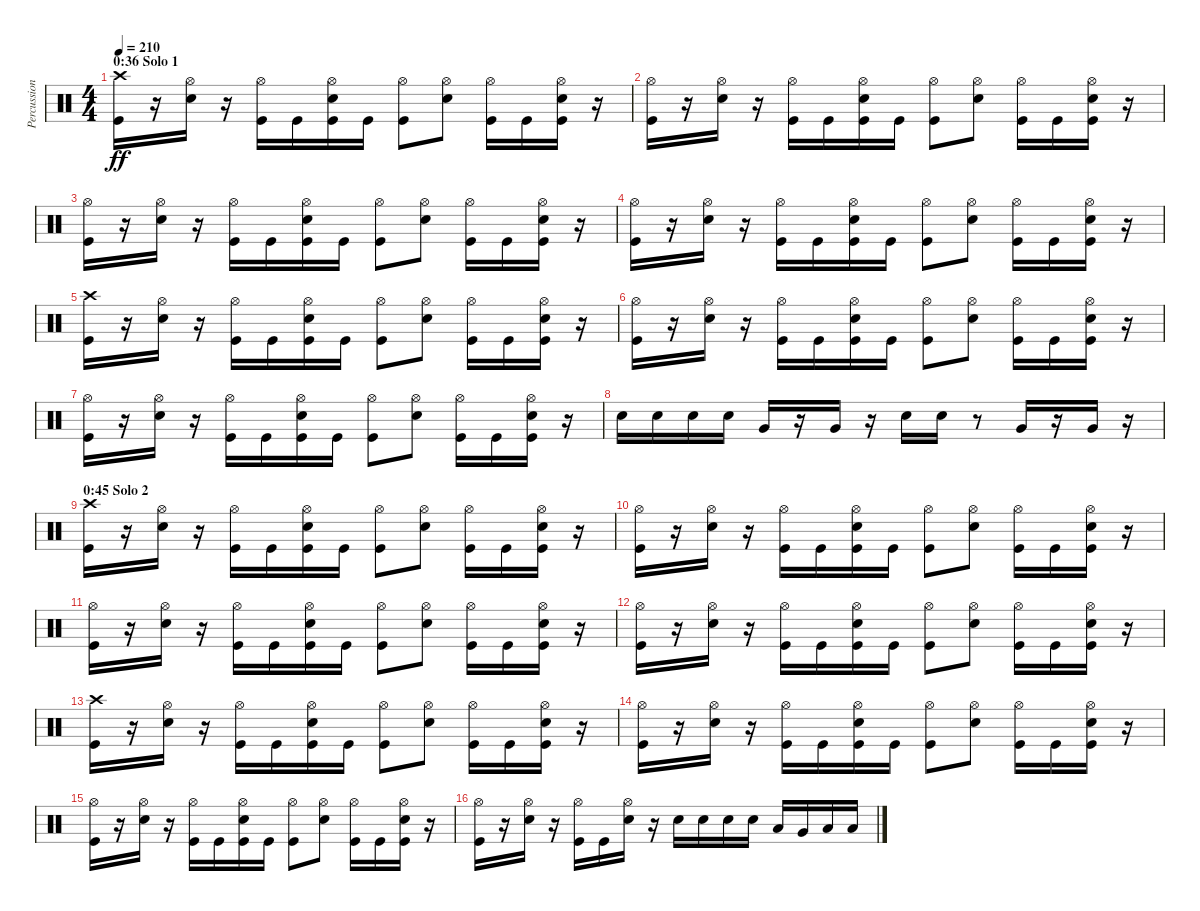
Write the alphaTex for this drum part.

\track ("Percussion" "Percussion") {instrument percussion}
\staff {score}
\articulation defaults
\ts (4 4)
\section ("" "0:36 Solo 1")
\tempo 210
\clef neutral
\ks c
("Crash high (hit)" "Kick (hit)").16{dy ff} r.16 ("Hi-Hat (open)" "Snare (hit) 2").16 r.16 ("Hi-Hat (open)" "Kick (hit)").16 "Kick (hit)".16 ("Hi-Hat (open)" "Snare (hit) 2" "Kick (hit)").16 "Kick (hit)".16 ("Hi-Hat (open)" "Kick (hit)").8 ("Hi-Hat (open)" "Snare (hit) 2").8 ("Hi-Hat (open)" "Kick (hit)").16 "Kick (hit)".16 ("Hi-Hat (open)" "Snare (hit) 2" "Kick (hit)").16 r.16 |
("Hi-Hat (open)" "Kick (hit)").16 r.16 ("Hi-Hat (open)" "Snare (hit) 2").16 r.16 ("Hi-Hat (open)" "Kick (hit)").16 "Kick (hit)".16 ("Hi-Hat (open)" "Snare (hit) 2" "Kick (hit)").16 "Kick (hit)".16 ("Hi-Hat (open)" "Kick (hit)").8 ("Hi-Hat (open)" "Snare (hit) 2").8 ("Hi-Hat (open)" "Kick (hit)").16 "Kick (hit)".16 ("Hi-Hat (open)" "Snare (hit) 2" "Kick (hit)").16 r.16 |
("Hi-Hat (open)" "Kick (hit)").16 r.16 ("Hi-Hat (open)" "Snare (hit) 2").16 r.16 ("Hi-Hat (open)" "Kick (hit)").16 "Kick (hit)".16 ("Hi-Hat (open)" "Snare (hit) 2" "Kick (hit)").16 "Kick (hit)".16 ("Hi-Hat (open)" "Kick (hit)").8 ("Hi-Hat (open)" "Snare (hit) 2").8 ("Hi-Hat (open)" "Kick (hit)").16 "Kick (hit)".16 ("Hi-Hat (open)" "Snare (hit) 2" "Kick (hit)").16 r.16 |
("Hi-Hat (open)" "Kick (hit)").16 r.16 ("Hi-Hat (open)" "Snare (hit) 2").16 r.16 ("Hi-Hat (open)" "Kick (hit)").16 "Kick (hit)".16 ("Hi-Hat (open)" "Snare (hit) 2" "Kick (hit)").16 "Kick (hit)".16 ("Hi-Hat (open)" "Kick (hit)").8 ("Hi-Hat (open)" "Snare (hit) 2").8 ("Hi-Hat (open)" "Kick (hit)").16 "Kick (hit)".16 ("Hi-Hat (open)" "Snare (hit) 2" "Kick (hit)").16 r.16 |
("Crash high (hit)" "Kick (hit)").16 r.16 ("Hi-Hat (open)" "Snare (hit) 2").16 r.16 ("Hi-Hat (open)" "Kick (hit)").16 "Kick (hit)".16 ("Hi-Hat (open)" "Snare (hit) 2" "Kick (hit)").16 "Kick (hit)".16 ("Hi-Hat (open)" "Kick (hit)").8 ("Hi-Hat (open)" "Snare (hit) 2").8 ("Hi-Hat (open)" "Kick (hit)").16 "Kick (hit)".16 ("Hi-Hat (open)" "Snare (hit) 2" "Kick (hit)").16 r.16 |
("Hi-Hat (open)" "Kick (hit)").16 r.16 ("Hi-Hat (open)" "Snare (hit) 2").16 r.16 ("Hi-Hat (open)" "Kick (hit)").16 "Kick (hit)".16 ("Hi-Hat (open)" "Snare (hit) 2" "Kick (hit)").16 "Kick (hit)".16 ("Hi-Hat (open)" "Kick (hit)").8 ("Hi-Hat (open)" "Snare (hit) 2").8 ("Hi-Hat (open)" "Kick (hit)").16 "Kick (hit)".16 ("Hi-Hat (open)" "Snare (hit) 2" "Kick (hit)").16 r.16 |
("Hi-Hat (open)" "Kick (hit)").16 r.16 ("Hi-Hat (open)" "Snare (hit) 2").16 r.16 ("Hi-Hat (open)" "Kick (hit)").16 "Kick (hit)".16 ("Hi-Hat (open)" "Snare (hit) 2" "Kick (hit)").16 "Kick (hit)".16 ("Hi-Hat (open)" "Kick (hit)").8 ("Hi-Hat (open)" "Snare (hit) 2").8 ("Hi-Hat (open)" "Kick (hit)").16 "Kick (hit)".16 ("Hi-Hat (open)" "Snare (hit) 2" "Kick (hit)").16 r.16 |
"Snare (hit) 2".16 "Snare (hit) 2".16 "Snare (hit) 2".16 "Snare (hit) 2".16 "Very Low Tom (hit)".16 r.16 "Very Low Tom (hit)".16 r.16 "Snare (hit) 2".16 "Snare (hit) 2".16 r.8 "Very Low Tom (hit)".16 r.16 "Very Low Tom (hit)".16 r.16 |
\section ("" "0:45 Solo 2")
("Crash high (hit)" "Kick (hit)").16 r.16 ("Hi-Hat (open)" "Snare (hit) 2").16 r.16 ("Hi-Hat (open)" "Kick (hit)").16 "Kick (hit)".16 ("Hi-Hat (open)" "Snare (hit) 2" "Kick (hit)").16 "Kick (hit)".16 ("Hi-Hat (open)" "Kick (hit)").8 ("Hi-Hat (open)" "Snare (hit) 2").8 ("Hi-Hat (open)" "Kick (hit)").16 "Kick (hit)".16 ("Hi-Hat (open)" "Snare (hit) 2" "Kick (hit)").16 r.16 |
("Hi-Hat (open)" "Kick (hit)").16 r.16 ("Hi-Hat (open)" "Snare (hit) 2").16 r.16 ("Hi-Hat (open)" "Kick (hit)").16 "Kick (hit)".16 ("Hi-Hat (open)" "Snare (hit) 2" "Kick (hit)").16 "Kick (hit)".16 ("Hi-Hat (open)" "Kick (hit)").8 ("Hi-Hat (open)" "Snare (hit) 2").8 ("Hi-Hat (open)" "Kick (hit)").16 "Kick (hit)".16 ("Hi-Hat (open)" "Snare (hit) 2" "Kick (hit)").16 r.16 |
("Hi-Hat (open)" "Kick (hit)").16 r.16 ("Hi-Hat (open)" "Snare (hit) 2").16 r.16 ("Hi-Hat (open)" "Kick (hit)").16 "Kick (hit)".16 ("Hi-Hat (open)" "Snare (hit) 2" "Kick (hit)").16 "Kick (hit)".16 ("Hi-Hat (open)" "Kick (hit)").8 ("Hi-Hat (open)" "Snare (hit) 2").8 ("Hi-Hat (open)" "Kick (hit)").16 "Kick (hit)".16 ("Hi-Hat (open)" "Snare (hit) 2" "Kick (hit)").16 r.16 |
("Hi-Hat (open)" "Kick (hit)").16 r.16 ("Hi-Hat (open)" "Snare (hit) 2").16 r.16 ("Hi-Hat (open)" "Kick (hit)").16 "Kick (hit)".16 ("Hi-Hat (open)" "Snare (hit) 2" "Kick (hit)").16 "Kick (hit)".16 ("Hi-Hat (open)" "Kick (hit)").8 ("Hi-Hat (open)" "Snare (hit) 2").8 ("Hi-Hat (open)" "Kick (hit)").16 "Kick (hit)".16 ("Hi-Hat (open)" "Snare (hit) 2" "Kick (hit)").16 r.16 |
("Crash high (hit)" "Kick (hit)").16 r.16 ("Hi-Hat (open)" "Snare (hit) 2").16 r.16 ("Hi-Hat (open)" "Kick (hit)").16 "Kick (hit)".16 ("Hi-Hat (open)" "Snare (hit) 2" "Kick (hit)").16 "Kick (hit)".16 ("Hi-Hat (open)" "Kick (hit)").8 ("Hi-Hat (open)" "Snare (hit) 2").8 ("Hi-Hat (open)" "Kick (hit)").16 "Kick (hit)".16 ("Hi-Hat (open)" "Snare (hit) 2" "Kick (hit)").16 r.16 |
("Hi-Hat (open)" "Kick (hit)").16 r.16 ("Hi-Hat (open)" "Snare (hit) 2").16 r.16 ("Hi-Hat (open)" "Kick (hit)").16 "Kick (hit)".16 ("Hi-Hat (open)" "Snare (hit) 2" "Kick (hit)").16 "Kick (hit)".16 ("Hi-Hat (open)" "Kick (hit)").8 ("Hi-Hat (open)" "Snare (hit) 2").8 ("Hi-Hat (open)" "Kick (hit)").16 "Kick (hit)".16 ("Hi-Hat (open)" "Snare (hit) 2" "Kick (hit)").16 r.16 |
("Hi-Hat (open)" "Kick (hit)").16 r.16 ("Hi-Hat (open)" "Snare (hit) 2").16 r.16 ("Hi-Hat (open)" "Kick (hit)").16 "Kick (hit)".16 ("Hi-Hat (open)" "Snare (hit) 2" "Kick (hit)").16 "Kick (hit)".16 ("Hi-Hat (open)" "Kick (hit)").8 ("Hi-Hat (open)" "Snare (hit) 2").8 ("Hi-Hat (open)" "Kick (hit)").16 "Kick (hit)".16 ("Hi-Hat (open)" "Snare (hit) 2" "Kick (hit)").16 r.16 |
("Hi-Hat (open)" "Kick (hit)").16 r.16 ("Hi-Hat (open)" "Snare (hit) 2").16 r.16 ("Hi-Hat (open)" "Kick (hit)").16 "Kick (hit)".16 ("Hi-Hat (open)" "Snare (hit) 2").16 r.16 "Snare (hit) 2".16 "Snare (hit) 2".16 "Snare (hit) 2".16 "Snare (hit) 2".16 "Low Floor Tom (hit)".16 "Very Low Tom (hit)".16 "Low Floor Tom (hit)".16 "Low Floor Tom (hit)".16
